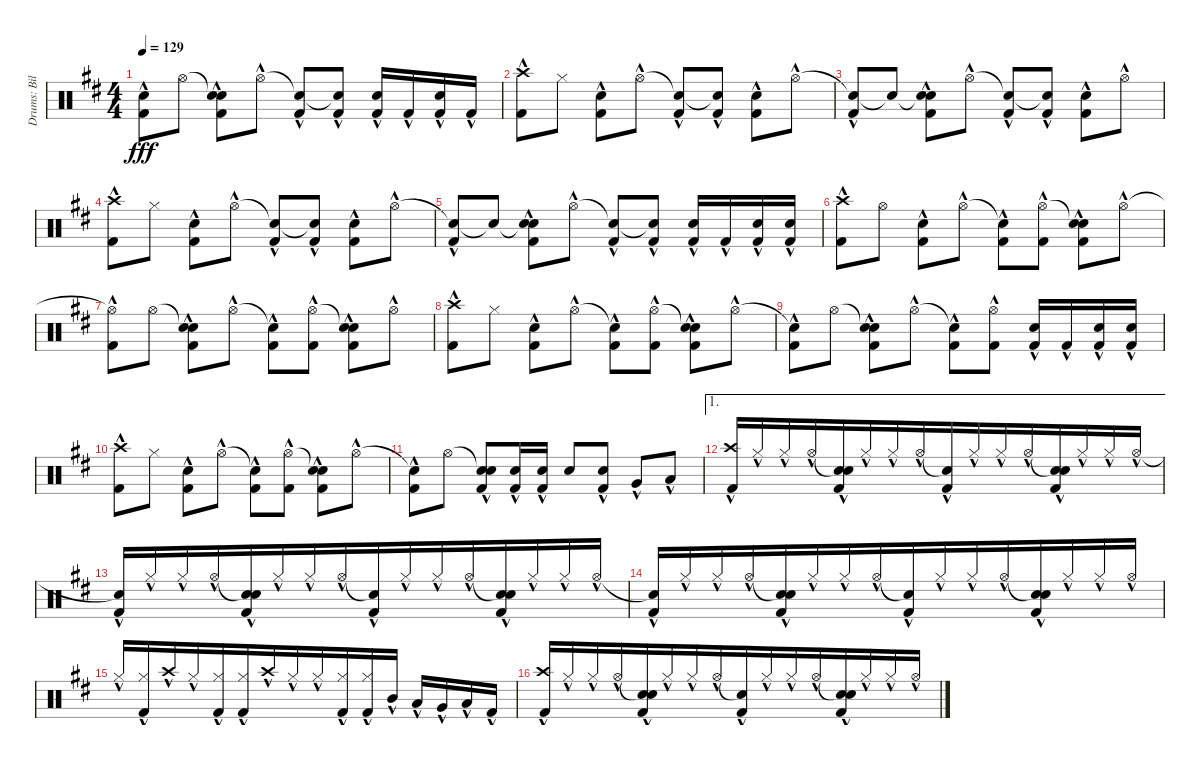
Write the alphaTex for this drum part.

\track ("Drums: Bill" "Drums: Bil") {instrument percussion}
\staff {score}
\articulation defaults
\ts (4 4)
\tempo 129
\clef neutral
\ks d
("Snare (hit)"{t} "Kick (hit) 2"{hac}).8{dy fff} "Hi-Hat (open)".8 ("Snare (hit)"{t} "Electric Snare (hit)"{hac} "Kick (hit) 2"{hac}).8 "Hi-Hat (open)"{hac}.8 ("Snare (hit)"{t} "Kick (hit) 2"{hac}).8 ("Snare (hit)"{t} "Kick (hit) 2"{hac}).8 ("Electric Snare (hit)"{hac} "Kick (hit) 2"{hac}).16 "Kick (hit) 2"{hac}.16 ("Electric Snare (hit)"{hac} "Kick (hit) 2"{hac}).16 "Kick (hit) 2"{hac}.16 |
("Crash high (hit)"{hac} "Kick (hit) 2"{hac}).8 "Hi-Hat (closed)".8 ("Electric Snare (hit)"{hac} "Kick (hit) 2"{hac}).8 "Hi-Hat (open)"{hac}.8 ("Snare (hit)"{t} "Kick (hit) 2"{hac}).8 ("Snare (hit)"{t} "Kick (hit) 2"{hac}).8 ("Electric Snare (hit)"{hac} "Kick (hit) 2"{hac}).8 "Hi-Hat (open)"{hac}.8 |
("Snare (hit)"{t} "Kick (hit) 2"{hac}).8 "Snare (hit)"{t}.8 ("Snare (hit)"{t} "Electric Snare (hit)"{hac} "Kick (hit) 2"{hac}).8 "Hi-Hat (open)"{hac}.8 ("Snare (hit)"{t} "Kick (hit) 2"{hac}).8 ("Snare (hit)"{t} "Kick (hit) 2"{hac}).8 ("Electric Snare (hit)"{hac} "Kick (hit) 2"{hac}).8 "Hi-Hat (open)"{hac}.8 |
("Crash high (hit)"{hac} "Kick (hit) 2"{hac}).8 "Hi-Hat (closed)".8 ("Electric Snare (hit)"{hac} "Kick (hit) 2"{hac}).8 "Hi-Hat (open)"{hac}.8 ("Snare (hit)"{t} "Kick (hit) 2"{hac}).8 ("Snare (hit)"{t} "Kick (hit) 2"{hac}).8 ("Electric Snare (hit)"{hac} "Kick (hit) 2"{hac}).8 "Hi-Hat (open)"{hac}.8 |
("Snare (hit)"{t} "Kick (hit) 2"{hac}).8 "Snare (hit)"{t}.8 ("Snare (hit)"{t} "Electric Snare (hit)"{hac} "Kick (hit) 2"{hac}).8 "Hi-Hat (open)"{hac}.8 ("Snare (hit)"{t} "Kick (hit) 2"{hac}).8 ("Snare (hit)"{t} "Kick (hit) 2"{hac}).8 ("Electric Snare (hit)"{hac} "Kick (hit) 2"{hac}).16 "Kick (hit) 2"{hac}.16 ("Electric Snare (hit)"{hac} "Kick (hit) 2"{hac}).16 ("Electric Snare (hit)"{hac} "Kick (hit) 2"{hac}).16 |
("Crash high (hit)"{hac} "Kick (hit) 2"{hac}).8 "Hi-Hat (open)".8 ("Electric Snare (hit)"{hac} "Kick (hit) 2"{hac}).8 "Hi-Hat (open)"{hac}.8 ("Snare (hit)"{t} "Kick (hit) 2"{hac}).8 ("Hi-Hat (open)" "Kick (hit) 2"{hac}).8 ("Snare (hit)"{t} "Electric Snare (hit)"{hac} "Kick (hit) 2"{hac}).8 "Hi-Hat (open)"{hac}.8 |
("Hi-Hat (open)"{t} "Kick (hit) 2"{hac}).8 "Hi-Hat (open)".8 ("Snare (hit)"{t} "Electric Snare (hit)"{hac} "Kick (hit) 2"{hac}).8 "Hi-Hat (open)"{hac}.8 ("Snare (hit)"{t} "Kick (hit) 2"{hac}).8 ("Hi-Hat (open)" "Kick (hit) 2"{hac}).8 ("Snare (hit)"{t} "Electric Snare (hit)"{hac} "Kick (hit) 2"{hac}).8 "Hi-Hat (open)"{hac}.8 |
("Crash high (hit)"{hac} "Kick (hit) 2"{hac}).8 "Hi-Hat (closed)".8 ("Electric Snare (hit)"{hac} "Kick (hit) 2"{hac}).8 "Hi-Hat (open)"{hac}.8 ("Snare (hit)"{t} "Kick (hit) 2"{hac}).8 ("Hi-Hat (open)" "Kick (hit) 2"{hac}).8 ("Snare (hit)"{t} "Electric Snare (hit)"{hac} "Kick (hit) 2"{hac}).8 "Hi-Hat (open)"{hac}.8 |
("Snare (hit)"{t} "Kick (hit) 2"{hac}).8 "Hi-Hat (open)".8 ("Snare (hit)"{t} "Electric Snare (hit)"{hac} "Kick (hit) 2"{hac}).8 "Hi-Hat (open)"{hac}.8 ("Snare (hit)"{t} "Kick (hit) 2"{hac}).8 ("Hi-Hat (open)" "Kick (hit) 2"{hac}).8 ("Electric Snare (hit)"{hac} "Kick (hit) 2"{hac}).16 "Kick (hit) 2"{hac}.16 ("Electric Snare (hit)"{hac} "Kick (hit) 2"{hac}).16 ("Electric Snare (hit)"{hac} "Kick (hit) 2"{hac}).16 |
("Crash high (hit)"{hac} "Kick (hit) 2"{hac}).8 "Hi-Hat (closed)".8 ("Electric Snare (hit)"{hac} "Kick (hit) 2"{hac}).8 "Hi-Hat (open)"{hac}.8 ("Snare (hit)"{t} "Kick (hit) 2"{hac}).8 ("Hi-Hat (open)" "Kick (hit) 2"{hac}).8 ("Snare (hit)"{t} "Electric Snare (hit)"{hac} "Kick (hit) 2"{hac}).8 "Hi-Hat (open)"{hac}.8 |
("Snare (hit)"{t} "Kick (hit) 2"{hac}).8 "Hi-Hat (open)".8 ("Snare (hit)"{t} "Electric Snare (hit)"{hac} "Kick (hit) 2"{hac}).8 ("Electric Snare (hit)"{hac} "Kick (hit) 2"{hac}).16 ("Electric Snare (hit)"{hac} "Kick (hit) 2"{hac}).16 "Electric Snare (hit)".8 ("Electric Snare (hit)"{hac} "Kick (hit) 2"{hac}).8 "Very Low Tom (hit)"{hac}.8 "Low Floor Tom (hit)"{hac}.8 |
\ae 1
("Crash high (hit)"{hac} "Kick (hit) 2"{hac}).16{beam Up beam merge} "Hi-Hat (closed)"{hac}.16{beam Up beam merge} "Hi-Hat (closed)"{hac}.16{beam Up beam merge} "Hi-Hat (open)"{hac}.16{beam Up beam merge} ("Snare (hit)"{t} "Electric Snare (hit)"{hac} "Kick (hit) 2"{hac}).16{beam Up beam merge} "Hi-Hat (closed)"{hac}.16{beam Up beam merge} "Hi-Hat (closed)"{hac}.16{beam Up beam merge} "Hi-Hat (open)"{hac}.16{beam Up beam merge} ("Snare (hit)"{t} "Kick (hit) 2"{hac}).16{beam Up beam merge} "Hi-Hat (closed)"{hac}.16{beam Up beam merge} "Hi-Hat (closed)"{hac}.16{beam Up beam merge} "Hi-Hat (open)"{hac}.16{beam Up beam merge} ("Snare (hit)"{t} "Electric Snare (hit)"{hac} "Kick (hit) 2"{hac}).16{beam Up beam merge} "Hi-Hat (closed)"{hac}.16{beam Up beam merge} "Hi-Hat (closed)"{hac}.16{beam Up beam merge} "Hi-Hat (open)"{hac}.16{beam Up} |
("Snare (hit)"{t} "Kick (hit) 2"{hac}).16{beam Up beam merge} "Hi-Hat (closed)"{hac}.16{beam Up beam merge} "Hi-Hat (closed)"{hac}.16{beam Up beam merge} "Hi-Hat (open)"{hac}.16{beam Up beam merge} ("Snare (hit)"{t} "Electric Snare (hit)"{hac} "Kick (hit) 2"{hac}).16{beam Up beam merge} "Hi-Hat (closed)"{hac}.16{beam Up beam merge} "Hi-Hat (closed)"{hac}.16{beam Up beam merge} "Hi-Hat (open)"{hac}.16{beam Up beam merge} ("Snare (hit)"{t} "Kick (hit) 2"{hac}).16{beam Up beam merge} "Hi-Hat (closed)"{hac}.16{beam Up beam merge} "Hi-Hat (closed)"{hac}.16{beam Up beam merge} "Hi-Hat (open)"{hac}.16{beam Up beam merge} ("Snare (hit)"{t} "Electric Snare (hit)" "Kick (hit) 2"{hac}).16{beam Up beam merge} "Hi-Hat (closed)"{hac}.16{beam Up beam merge} "Hi-Hat (closed)"{hac}.16{beam Up beam merge} "Hi-Hat (open)"{hac}.16{beam Up} |
("Snare (hit)"{t} "Kick (hit) 2"{hac}).16{beam Up beam merge} "Hi-Hat (closed)"{hac}.16{beam Up beam merge} "Hi-Hat (closed)"{hac}.16{beam Up beam merge} "Hi-Hat (open)"{hac}.16{beam Up beam merge} ("Snare (hit)"{t} "Electric Snare (hit)"{hac} "Kick (hit) 2"{hac}).16{beam Up beam merge} "Hi-Hat (closed)"{hac}.16{beam Up beam merge} "Hi-Hat (closed)"{hac}.16{beam Up beam merge} "Hi-Hat (open)"{hac}.16{beam Up beam merge} ("Snare (hit)"{t} "Kick (hit) 2"{hac}).16{beam Up beam merge} "Hi-Hat (closed)"{hac}.16{beam Up beam merge} "Hi-Hat (closed)"{hac}.16{beam Up beam merge} "Hi-Hat (open)"{hac}.16{beam Up beam merge} ("Snare (hit)"{t} "Electric Snare (hit)" "Kick (hit) 2"{hac}).16{beam Up beam merge} "Hi-Hat (closed)"{hac}.16{beam Up beam merge} "Hi-Hat (closed)"{hac}.16{beam Up beam merge} "Hi-Hat (open)"{hac}.16{beam Up} |
"Hi-Hat (closed)"{hac}.16{beam Up beam merge} ("Hi-Hat (closed)"{hac} "Kick (hit) 2"{hac}).16{beam Up} "Crash high (hit)"{hac}.16{beam merge} "Hi-Hat (closed)"{hac}.16{beam Up beam merge} ("Hi-Hat (closed)"{hac} "Kick (hit) 2"{hac}).16{beam Up beam merge} ("Hi-Hat (closed)"{hac} "Kick (hit) 2"{hac}).16{beam Up} "Crash high (hit)"{hac}.16{beam merge} "Hi-Hat (closed)"{hac}.16{beam Up beam merge} "Hi-Hat (closed)"{hac}.16{beam Up beam merge} ("Hi-Hat (closed)"{hac} "Kick (hit) 2"{hac}).16{beam Up beam merge} ("Hi-Hat (closed)"{hac} "Kick (hit) 2"{hac}).16{beam Up} "Mid Tom (hit)"{hac}.16 "Low Tom (hit)"{hac}.16 "Very Low Tom (hit)"{hac}.16 "Low Floor Tom (hit)"{hac}.16 "Kick (hit) 2"{hac}.16 |
("Crash high (hit)"{hac} "Kick (hit) 2"{hac}).16{beam Up beam merge} "Hi-Hat (closed)"{hac}.16{beam Up beam merge} "Hi-Hat (closed)"{hac}.16{beam Up beam merge} "Hi-Hat (open)"{hac}.16{beam Up beam merge} ("Snare (hit)"{t} "Electric Snare (hit)"{hac} "Kick (hit) 2"{hac}).16{beam Up beam merge} "Hi-Hat (closed)"{hac}.16{beam Up beam merge} "Hi-Hat (closed)"{hac}.16{beam Up beam merge} "Hi-Hat (open)"{hac}.16{beam Up beam merge} ("Snare (hit)"{t} "Kick (hit) 2"{hac}).16{beam Up beam merge} "Hi-Hat (closed)"{hac}.16{beam Up beam merge} "Hi-Hat (closed)"{hac}.16{beam Up beam merge} "Hi-Hat (open)"{hac}.16{beam Up beam merge} ("Snare (hit)"{t} "Electric Snare (hit)"{hac} "Kick (hit) 2"{hac}).16{beam Up beam merge} "Hi-Hat (closed)"{hac}.16{beam Up beam merge} "Hi-Hat (closed)"{hac}.16{beam Up beam merge} "Hi-Hat (open)"{hac}.16{beam Up}
